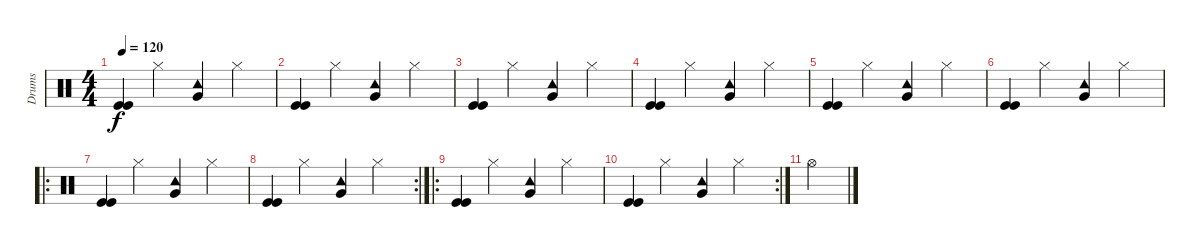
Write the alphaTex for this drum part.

\track ("Drums" "Drums") {instrument percussion}
\staff {score}
\articulation defaults
\ts (4 4)
\tempo 120
\clef neutral
\ks c
("Kick (hit)" "Kick (hit)").4{dy f} "Hi-Hat (closed)".4 ("Tambourine (hit)" "Very Low Tom (hit)").4 "Hi-Hat (closed)".4 |
("Kick (hit)" "Kick (hit)").4 "Hi-Hat (closed)".4 ("Tambourine (hit)" "Very Low Tom (hit)").4 "Hi-Hat (closed)".4 |
("Kick (hit)" "Kick (hit)").4 "Hi-Hat (closed)".4 ("Tambourine (hit)" "Very Low Tom (hit)").4 "Hi-Hat (closed)".4 |
("Kick (hit)" "Kick (hit)").4 "Hi-Hat (closed)".4 ("Tambourine (hit)" "Very Low Tom (hit)").4 "Hi-Hat (closed)".4 |
("Kick (hit)" "Kick (hit)").4 "Hi-Hat (closed)".4 ("Tambourine (hit)" "Very Low Tom (hit)").4 "Hi-Hat (closed)".4 |
("Kick (hit)" "Kick (hit)").4 "Hi-Hat (closed)".4 ("Tambourine (hit)" "Very Low Tom (hit)").4 "Hi-Hat (closed)".4 |
\ro
("Kick (hit)" "Kick (hit)").4 "Hi-Hat (closed)".4 ("Tambourine (hit)" "Very Low Tom (hit)").4 "Hi-Hat (closed)".4 |
\rc 2
("Kick (hit)" "Kick (hit)").4 "Hi-Hat (closed)".4 ("Tambourine (hit)" "Very Low Tom (hit)").4 "Hi-Hat (closed)".4 |
\ro
("Kick (hit)" "Kick (hit)").4 "Hi-Hat (closed)".4 ("Tambourine (hit)" "Very Low Tom (hit)").4 "Hi-Hat (closed)".4 |
\rc 2
("Kick (hit)" "Kick (hit)").4 "Hi-Hat (closed)".4 ("Tambourine (hit)" "Very Low Tom (hit)").4 "Hi-Hat (closed)".4 |
"Hi-Hat (open)".4
